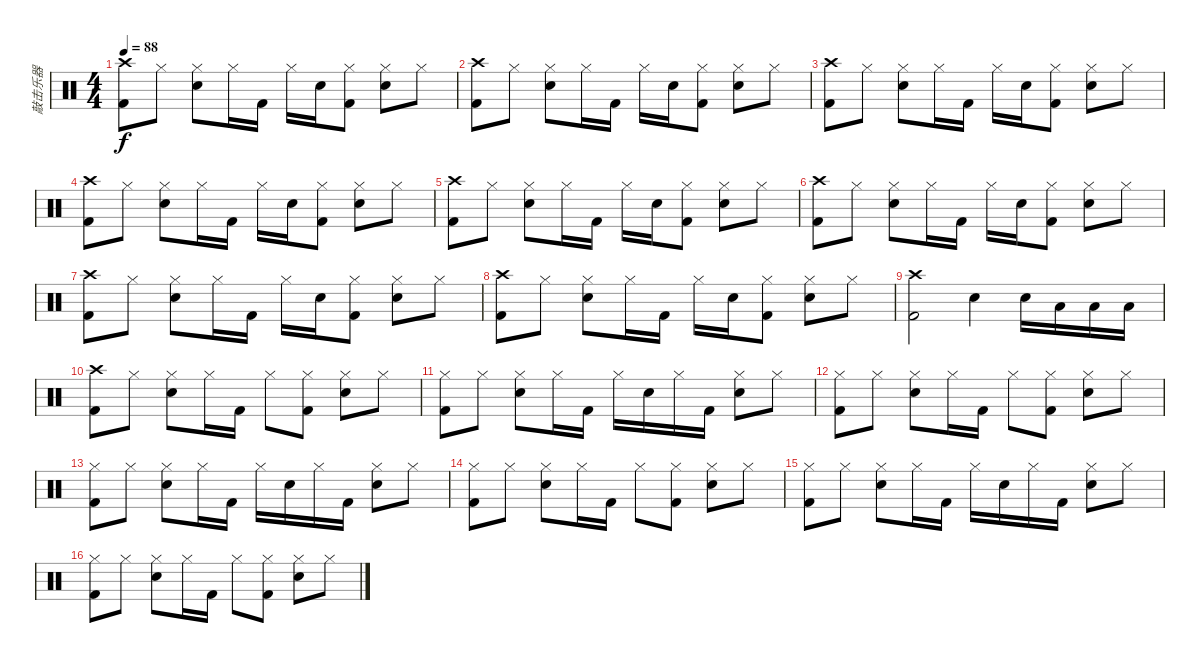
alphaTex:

\track ("敲击乐器" "敲击乐器") {instrument percussion}
\staff {score}
\articulation defaults
\ts (4 4)
\tempo 88
\clef neutral
\ks c
("Crash high (hit)" "Kick (hit) 2").8{dy f} "Hi-Hat (closed)".8 ("Hi-Hat (closed)" "Electric Snare (hit)").8 "Hi-Hat (closed)".16 "Kick (hit) 2".16 "Hi-Hat (closed)".16 "Electric Snare (hit)".16 ("Hi-Hat (closed)" "Kick (hit) 2").8 ("Hi-Hat (closed)" "Electric Snare (hit)").8 "Hi-Hat (closed)".8 |
("Crash high (hit)" "Kick (hit) 2").8 "Hi-Hat (closed)".8 ("Hi-Hat (closed)" "Electric Snare (hit)").8 "Hi-Hat (closed)".16 "Kick (hit) 2".16 "Hi-Hat (closed)".16 "Electric Snare (hit)".16 ("Hi-Hat (closed)" "Kick (hit) 2").8 ("Hi-Hat (closed)" "Electric Snare (hit)").8 "Hi-Hat (closed)".8 |
("Crash high (hit)" "Kick (hit) 2").8 "Hi-Hat (closed)".8 ("Hi-Hat (closed)" "Electric Snare (hit)").8 "Hi-Hat (closed)".16 "Kick (hit) 2".16 "Hi-Hat (closed)".16 "Electric Snare (hit)".16 ("Hi-Hat (closed)" "Kick (hit) 2").8 ("Hi-Hat (closed)" "Electric Snare (hit)").8 "Hi-Hat (closed)".8 |
("Crash high (hit)" "Kick (hit) 2").8 "Hi-Hat (closed)".8 ("Hi-Hat (closed)" "Electric Snare (hit)").8 "Hi-Hat (closed)".16 "Kick (hit) 2".16 "Hi-Hat (closed)".16 "Electric Snare (hit)".16 ("Hi-Hat (closed)" "Kick (hit) 2").8 ("Hi-Hat (closed)" "Electric Snare (hit)").8 "Hi-Hat (closed)".8 |
("Crash high (hit)" "Kick (hit) 2").8 "Hi-Hat (closed)".8 ("Hi-Hat (closed)" "Electric Snare (hit)").8 "Hi-Hat (closed)".16 "Kick (hit) 2".16 "Hi-Hat (closed)".16 "Electric Snare (hit)".16 ("Hi-Hat (closed)" "Kick (hit) 2").8 ("Hi-Hat (closed)" "Electric Snare (hit)").8 "Hi-Hat (closed)".8 |
("Crash high (hit)" "Kick (hit) 2").8 "Hi-Hat (closed)".8 ("Hi-Hat (closed)" "Electric Snare (hit)").8 "Hi-Hat (closed)".16 "Kick (hit) 2".16 "Hi-Hat (closed)".16 "Electric Snare (hit)".16 ("Hi-Hat (closed)" "Kick (hit) 2").8 ("Hi-Hat (closed)" "Electric Snare (hit)").8 "Hi-Hat (closed)".8 |
("Crash high (hit)" "Kick (hit) 2").8 "Hi-Hat (closed)".8 ("Hi-Hat (closed)" "Electric Snare (hit)").8 "Hi-Hat (closed)".16 "Kick (hit) 2".16 "Hi-Hat (closed)".16 "Electric Snare (hit)".16 ("Hi-Hat (closed)" "Kick (hit) 2").8 ("Hi-Hat (closed)" "Electric Snare (hit)").8 "Hi-Hat (closed)".8 |
("Crash high (hit)" "Kick (hit) 2").8 "Hi-Hat (closed)".8 ("Hi-Hat (closed)" "Electric Snare (hit)").8 "Hi-Hat (closed)".16 "Kick (hit) 2".16 "Hi-Hat (closed)".16 "Electric Snare (hit)".16 ("Hi-Hat (closed)" "Kick (hit) 2").8 ("Hi-Hat (closed)" "Electric Snare (hit)").8 "Hi-Hat (closed)".8 |
("Crash high (hit)" "Kick (hit) 2").2 "Electric Snare (hit)".4 "Electric Snare (hit)".16 "Low Floor Tom (hit)".16 "Low Tom (hit)".16 "Low Tom (hit)".16 |
("Crash high (hit)" "Kick (hit) 2").8 "Hi-Hat (closed)".8 ("Hi-Hat (closed)" "Electric Snare (hit)").8 "Hi-Hat (closed)".16 "Kick (hit) 2".16 "Hi-Hat (closed)".8 ("Hi-Hat (closed)" "Kick (hit) 2").8 ("Hi-Hat (closed)" "Electric Snare (hit)").8 "Hi-Hat (closed)".8 |
("Hi-Hat (closed)" "Kick (hit) 2").8 "Hi-Hat (closed)".8 ("Hi-Hat (closed)" "Electric Snare (hit)").8 "Hi-Hat (closed)".16 "Kick (hit) 2".16 "Hi-Hat (closed)".16 "Electric Snare (hit)".16 "Hi-Hat (closed)".16 "Kick (hit) 2".16 ("Hi-Hat (closed)" "Electric Snare (hit)").8 "Hi-Hat (closed)".8 |
("Hi-Hat (closed)" "Kick (hit) 2").8 "Hi-Hat (closed)".8 ("Hi-Hat (closed)" "Electric Snare (hit)").8 "Hi-Hat (closed)".16 "Kick (hit) 2".16 "Hi-Hat (closed)".8 ("Hi-Hat (closed)" "Kick (hit) 2").8 ("Hi-Hat (closed)" "Electric Snare (hit)").8 "Hi-Hat (closed)".8 |
("Hi-Hat (closed)" "Kick (hit) 2").8 "Hi-Hat (closed)".8 ("Hi-Hat (closed)" "Electric Snare (hit)").8 "Hi-Hat (closed)".16 "Kick (hit) 2".16 "Hi-Hat (closed)".16 "Electric Snare (hit)".16 "Hi-Hat (closed)".16 "Kick (hit) 2".16 ("Hi-Hat (closed)" "Electric Snare (hit)").8 "Hi-Hat (closed)".8 |
("Hi-Hat (closed)" "Kick (hit) 2").8 "Hi-Hat (closed)".8 ("Hi-Hat (closed)" "Electric Snare (hit)").8 "Hi-Hat (closed)".16 "Kick (hit) 2".16 "Hi-Hat (closed)".8 ("Hi-Hat (closed)" "Kick (hit) 2").8 ("Hi-Hat (closed)" "Electric Snare (hit)").8 "Hi-Hat (closed)".8 |
("Hi-Hat (closed)" "Kick (hit) 2").8 "Hi-Hat (closed)".8 ("Hi-Hat (closed)" "Electric Snare (hit)").8 "Hi-Hat (closed)".16 "Kick (hit) 2".16 "Hi-Hat (closed)".16 "Electric Snare (hit)".16 "Hi-Hat (closed)".16 "Kick (hit) 2".16 ("Hi-Hat (closed)" "Electric Snare (hit)").8 "Hi-Hat (closed)".8 |
("Hi-Hat (closed)" "Kick (hit) 2").8 "Hi-Hat (closed)".8 ("Hi-Hat (closed)" "Electric Snare (hit)").8 "Hi-Hat (closed)".16 "Kick (hit) 2".16 "Hi-Hat (closed)".8 ("Hi-Hat (closed)" "Kick (hit) 2").8 ("Hi-Hat (closed)" "Electric Snare (hit)").8 "Hi-Hat (closed)".8
